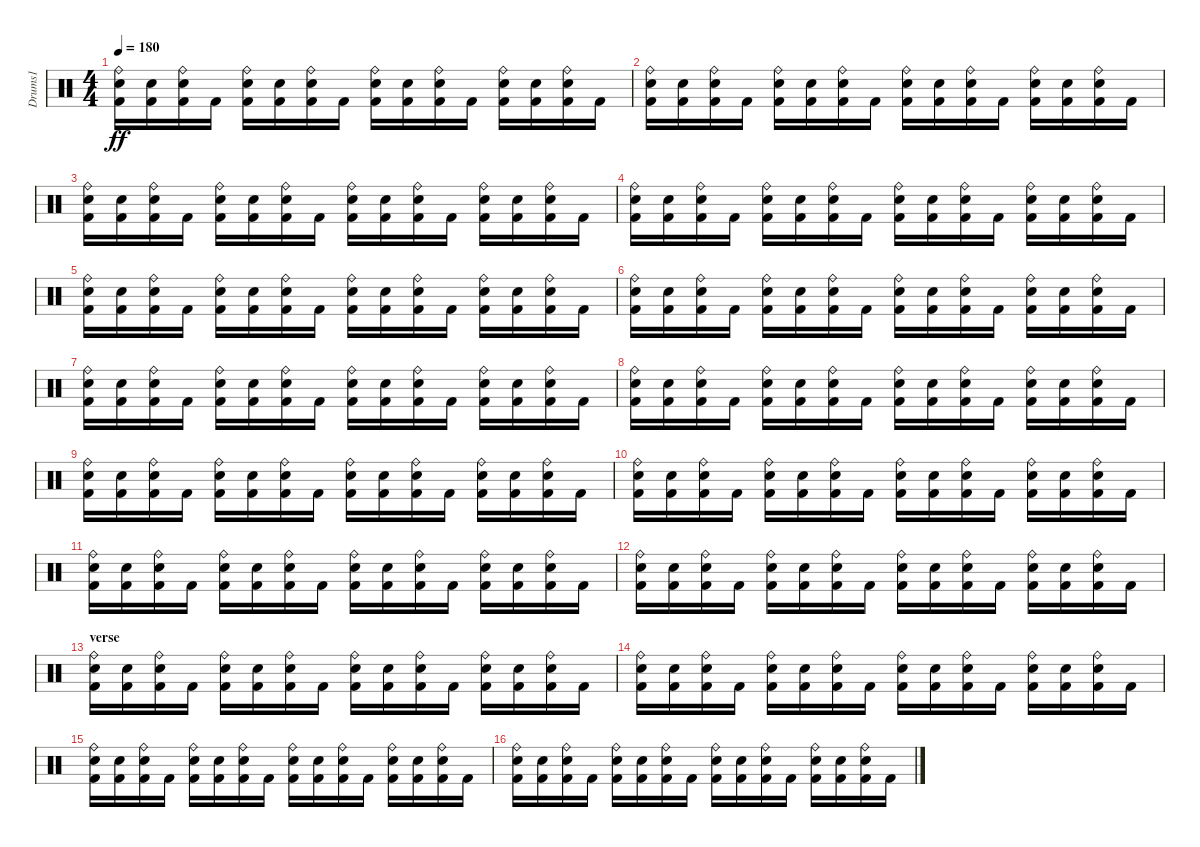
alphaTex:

\track ("Drums1" "Drums1") {instrument percussion}
\staff {score}
\articulation defaults
\ts (4 4)
\tempo 180
\clef neutral
\ks c
("Ride (bell)" "Electric Snare (hit)" "Kick (hit) 2").16{dy ff} ("Electric Snare (hit)" "Kick (hit) 2").16 ("Ride (bell)" "Electric Snare (hit)" "Kick (hit) 2").16 "Kick (hit) 2".16 ("Ride (bell)" "Electric Snare (hit)" "Kick (hit) 2").16 ("Electric Snare (hit)" "Kick (hit) 2").16 ("Ride (bell)" "Electric Snare (hit)" "Kick (hit) 2").16 "Kick (hit) 2".16 ("Ride (bell)" "Electric Snare (hit)" "Kick (hit) 2").16 ("Electric Snare (hit)" "Kick (hit) 2").16 ("Ride (bell)" "Electric Snare (hit)" "Kick (hit) 2").16 "Kick (hit) 2".16 ("Ride (bell)" "Electric Snare (hit)" "Kick (hit) 2").16 ("Electric Snare (hit)" "Kick (hit) 2").16 ("Ride (bell)" "Electric Snare (hit)" "Kick (hit) 2").16 "Kick (hit) 2".16 |
("Ride (bell)" "Electric Snare (hit)" "Kick (hit) 2").16 ("Electric Snare (hit)" "Kick (hit) 2").16 ("Ride (bell)" "Electric Snare (hit)" "Kick (hit) 2").16 "Kick (hit) 2".16 ("Ride (bell)" "Electric Snare (hit)" "Kick (hit) 2").16 ("Electric Snare (hit)" "Kick (hit) 2").16 ("Ride (bell)" "Electric Snare (hit)" "Kick (hit) 2").16 "Kick (hit) 2".16 ("Ride (bell)" "Electric Snare (hit)" "Kick (hit) 2").16 ("Electric Snare (hit)" "Kick (hit) 2").16 ("Ride (bell)" "Electric Snare (hit)" "Kick (hit) 2").16 "Kick (hit) 2".16 ("Ride (bell)" "Electric Snare (hit)" "Kick (hit) 2").16 ("Electric Snare (hit)" "Kick (hit) 2").16 ("Ride (bell)" "Electric Snare (hit)" "Kick (hit) 2").16 "Kick (hit) 2".16 |
("Ride (bell)" "Electric Snare (hit)" "Kick (hit) 2").16 ("Electric Snare (hit)" "Kick (hit) 2").16 ("Ride (bell)" "Electric Snare (hit)" "Kick (hit) 2").16 "Kick (hit) 2".16 ("Ride (bell)" "Electric Snare (hit)" "Kick (hit) 2").16 ("Electric Snare (hit)" "Kick (hit) 2").16 ("Ride (bell)" "Electric Snare (hit)" "Kick (hit) 2").16 "Kick (hit) 2".16 ("Ride (bell)" "Electric Snare (hit)" "Kick (hit) 2").16 ("Electric Snare (hit)" "Kick (hit) 2").16 ("Ride (bell)" "Electric Snare (hit)" "Kick (hit) 2").16 "Kick (hit) 2".16 ("Ride (bell)" "Electric Snare (hit)" "Kick (hit) 2").16 ("Electric Snare (hit)" "Kick (hit) 2").16 ("Ride (bell)" "Electric Snare (hit)" "Kick (hit) 2").16 "Kick (hit) 2".16 |
("Ride (bell)" "Electric Snare (hit)" "Kick (hit) 2").16 ("Electric Snare (hit)" "Kick (hit) 2").16 ("Ride (bell)" "Electric Snare (hit)" "Kick (hit) 2").16 "Kick (hit) 2".16 ("Ride (bell)" "Electric Snare (hit)" "Kick (hit) 2").16 ("Electric Snare (hit)" "Kick (hit) 2").16 ("Ride (bell)" "Electric Snare (hit)" "Kick (hit) 2").16 "Kick (hit) 2".16 ("Ride (bell)" "Electric Snare (hit)" "Kick (hit) 2").16 ("Electric Snare (hit)" "Kick (hit) 2").16 ("Ride (bell)" "Electric Snare (hit)" "Kick (hit) 2").16 "Kick (hit) 2".16 ("Ride (bell)" "Electric Snare (hit)" "Kick (hit) 2").16 ("Electric Snare (hit)" "Kick (hit) 2").16 ("Ride (bell)" "Electric Snare (hit)" "Kick (hit) 2").16 "Kick (hit) 2".16 |
("Ride (bell)" "Electric Snare (hit)" "Kick (hit) 2").16 ("Electric Snare (hit)" "Kick (hit) 2").16 ("Ride (bell)" "Electric Snare (hit)" "Kick (hit) 2").16 "Kick (hit) 2".16 ("Ride (bell)" "Electric Snare (hit)" "Kick (hit) 2").16 ("Electric Snare (hit)" "Kick (hit) 2").16 ("Ride (bell)" "Electric Snare (hit)" "Kick (hit) 2").16 "Kick (hit) 2".16 ("Ride (bell)" "Electric Snare (hit)" "Kick (hit) 2").16 ("Electric Snare (hit)" "Kick (hit) 2").16 ("Ride (bell)" "Electric Snare (hit)" "Kick (hit) 2").16 "Kick (hit) 2".16 ("Ride (bell)" "Electric Snare (hit)" "Kick (hit) 2").16 ("Electric Snare (hit)" "Kick (hit) 2").16 ("Ride (bell)" "Electric Snare (hit)" "Kick (hit) 2").16 "Kick (hit) 2".16 |
("Ride (bell)" "Electric Snare (hit)" "Kick (hit) 2").16 ("Electric Snare (hit)" "Kick (hit) 2").16 ("Ride (bell)" "Electric Snare (hit)" "Kick (hit) 2").16 "Kick (hit) 2".16 ("Ride (bell)" "Electric Snare (hit)" "Kick (hit) 2").16 ("Electric Snare (hit)" "Kick (hit) 2").16 ("Ride (bell)" "Electric Snare (hit)" "Kick (hit) 2").16 "Kick (hit) 2".16 ("Ride (bell)" "Electric Snare (hit)" "Kick (hit) 2").16 ("Electric Snare (hit)" "Kick (hit) 2").16 ("Ride (bell)" "Electric Snare (hit)" "Kick (hit) 2").16 "Kick (hit) 2".16 ("Ride (bell)" "Electric Snare (hit)" "Kick (hit) 2").16 ("Electric Snare (hit)" "Kick (hit) 2").16 ("Ride (bell)" "Electric Snare (hit)" "Kick (hit) 2").16 "Kick (hit) 2".16 |
("Ride (bell)" "Electric Snare (hit)" "Kick (hit) 2").16 ("Electric Snare (hit)" "Kick (hit) 2").16 ("Ride (bell)" "Electric Snare (hit)" "Kick (hit) 2").16 "Kick (hit) 2".16 ("Ride (bell)" "Electric Snare (hit)" "Kick (hit) 2").16 ("Electric Snare (hit)" "Kick (hit) 2").16 ("Ride (bell)" "Electric Snare (hit)" "Kick (hit) 2").16 "Kick (hit) 2".16 ("Ride (bell)" "Electric Snare (hit)" "Kick (hit) 2").16 ("Electric Snare (hit)" "Kick (hit) 2").16 ("Ride (bell)" "Electric Snare (hit)" "Kick (hit) 2").16 "Kick (hit) 2".16 ("Ride (bell)" "Electric Snare (hit)" "Kick (hit) 2").16 ("Electric Snare (hit)" "Kick (hit) 2").16 ("Ride (bell)" "Electric Snare (hit)" "Kick (hit) 2").16 "Kick (hit) 2".16 |
("Ride (bell)" "Electric Snare (hit)" "Kick (hit) 2").16 ("Electric Snare (hit)" "Kick (hit) 2").16 ("Ride (bell)" "Electric Snare (hit)" "Kick (hit) 2").16 "Kick (hit) 2".16 ("Ride (bell)" "Electric Snare (hit)" "Kick (hit) 2").16 ("Electric Snare (hit)" "Kick (hit) 2").16 ("Ride (bell)" "Electric Snare (hit)" "Kick (hit) 2").16 "Kick (hit) 2".16 ("Ride (bell)" "Electric Snare (hit)" "Kick (hit) 2").16 ("Electric Snare (hit)" "Kick (hit) 2").16 ("Ride (bell)" "Electric Snare (hit)" "Kick (hit) 2").16 "Kick (hit) 2".16 ("Ride (bell)" "Electric Snare (hit)" "Kick (hit) 2").16 ("Electric Snare (hit)" "Kick (hit) 2").16 ("Ride (bell)" "Electric Snare (hit)" "Kick (hit) 2").16 "Kick (hit) 2".16 |
("Ride (bell)" "Electric Snare (hit)" "Kick (hit) 2").16 ("Electric Snare (hit)" "Kick (hit) 2").16 ("Ride (bell)" "Electric Snare (hit)" "Kick (hit) 2").16 "Kick (hit) 2".16 ("Ride (bell)" "Electric Snare (hit)" "Kick (hit) 2").16 ("Electric Snare (hit)" "Kick (hit) 2").16 ("Ride (bell)" "Electric Snare (hit)" "Kick (hit) 2").16 "Kick (hit) 2".16 ("Ride (bell)" "Electric Snare (hit)" "Kick (hit) 2").16 ("Electric Snare (hit)" "Kick (hit) 2").16 ("Ride (bell)" "Electric Snare (hit)" "Kick (hit) 2").16 "Kick (hit) 2".16 ("Ride (bell)" "Electric Snare (hit)" "Kick (hit) 2").16 ("Electric Snare (hit)" "Kick (hit) 2").16 ("Ride (bell)" "Electric Snare (hit)" "Kick (hit) 2").16 "Kick (hit) 2".16 |
("Ride (bell)" "Electric Snare (hit)" "Kick (hit) 2").16 ("Electric Snare (hit)" "Kick (hit) 2").16 ("Ride (bell)" "Electric Snare (hit)" "Kick (hit) 2").16 "Kick (hit) 2".16 ("Ride (bell)" "Electric Snare (hit)" "Kick (hit) 2").16 ("Electric Snare (hit)" "Kick (hit) 2").16 ("Ride (bell)" "Electric Snare (hit)" "Kick (hit) 2").16 "Kick (hit) 2".16 ("Ride (bell)" "Electric Snare (hit)" "Kick (hit) 2").16 ("Electric Snare (hit)" "Kick (hit) 2").16 ("Ride (bell)" "Electric Snare (hit)" "Kick (hit) 2").16 "Kick (hit) 2".16 ("Ride (bell)" "Electric Snare (hit)" "Kick (hit) 2").16 ("Electric Snare (hit)" "Kick (hit) 2").16 ("Ride (bell)" "Electric Snare (hit)" "Kick (hit) 2").16 "Kick (hit) 2".16 |
("Ride (bell)" "Electric Snare (hit)" "Kick (hit) 2").16 ("Electric Snare (hit)" "Kick (hit) 2").16 ("Ride (bell)" "Electric Snare (hit)" "Kick (hit) 2").16 "Kick (hit) 2".16 ("Ride (bell)" "Electric Snare (hit)" "Kick (hit) 2").16 ("Electric Snare (hit)" "Kick (hit) 2").16 ("Ride (bell)" "Electric Snare (hit)" "Kick (hit) 2").16 "Kick (hit) 2".16 ("Ride (bell)" "Electric Snare (hit)" "Kick (hit) 2").16 ("Electric Snare (hit)" "Kick (hit) 2").16 ("Ride (bell)" "Electric Snare (hit)" "Kick (hit) 2").16 "Kick (hit) 2".16 ("Ride (bell)" "Electric Snare (hit)" "Kick (hit) 2").16 ("Electric Snare (hit)" "Kick (hit) 2").16 ("Ride (bell)" "Electric Snare (hit)" "Kick (hit) 2").16 "Kick (hit) 2".16 |
("Ride (bell)" "Electric Snare (hit)" "Kick (hit) 2").16 ("Electric Snare (hit)" "Kick (hit) 2").16 ("Ride (bell)" "Electric Snare (hit)" "Kick (hit) 2").16 "Kick (hit) 2".16 ("Ride (bell)" "Electric Snare (hit)" "Kick (hit) 2").16 ("Electric Snare (hit)" "Kick (hit) 2").16 ("Ride (bell)" "Electric Snare (hit)" "Kick (hit) 2").16 "Kick (hit) 2".16 ("Ride (bell)" "Electric Snare (hit)" "Kick (hit) 2").16 ("Electric Snare (hit)" "Kick (hit) 2").16 ("Ride (bell)" "Electric Snare (hit)" "Kick (hit) 2").16 "Kick (hit) 2".16 ("Ride (bell)" "Electric Snare (hit)" "Kick (hit) 2").16 ("Electric Snare (hit)" "Kick (hit) 2").16 ("Ride (bell)" "Electric Snare (hit)" "Kick (hit) 2").16 "Kick (hit) 2".16 |
\section ("" "verse")
("Ride (bell)" "Electric Snare (hit)" "Kick (hit) 2").16 ("Electric Snare (hit)" "Kick (hit) 2").16 ("Ride (bell)" "Electric Snare (hit)" "Kick (hit) 2").16 "Kick (hit) 2".16 ("Ride (bell)" "Electric Snare (hit)" "Kick (hit) 2").16 ("Electric Snare (hit)" "Kick (hit) 2").16 ("Ride (bell)" "Electric Snare (hit)" "Kick (hit) 2").16 "Kick (hit) 2".16 ("Ride (bell)" "Electric Snare (hit)" "Kick (hit) 2").16 ("Electric Snare (hit)" "Kick (hit) 2").16 ("Ride (bell)" "Electric Snare (hit)" "Kick (hit) 2").16 "Kick (hit) 2".16 ("Ride (bell)" "Electric Snare (hit)" "Kick (hit) 2").16 ("Electric Snare (hit)" "Kick (hit) 2").16 ("Ride (bell)" "Electric Snare (hit)" "Kick (hit) 2").16 "Kick (hit) 2".16 |
("Ride (bell)" "Electric Snare (hit)" "Kick (hit) 2").16 ("Electric Snare (hit)" "Kick (hit) 2").16 ("Ride (bell)" "Electric Snare (hit)" "Kick (hit) 2").16 "Kick (hit) 2".16 ("Ride (bell)" "Electric Snare (hit)" "Kick (hit) 2").16 ("Electric Snare (hit)" "Kick (hit) 2").16 ("Ride (bell)" "Electric Snare (hit)" "Kick (hit) 2").16 "Kick (hit) 2".16 ("Ride (bell)" "Electric Snare (hit)" "Kick (hit) 2").16 ("Electric Snare (hit)" "Kick (hit) 2").16 ("Ride (bell)" "Electric Snare (hit)" "Kick (hit) 2").16 "Kick (hit) 2".16 ("Ride (bell)" "Electric Snare (hit)" "Kick (hit) 2").16 ("Electric Snare (hit)" "Kick (hit) 2").16 ("Ride (bell)" "Electric Snare (hit)" "Kick (hit) 2").16 "Kick (hit) 2".16 |
("Ride (bell)" "Electric Snare (hit)" "Kick (hit) 2").16 ("Electric Snare (hit)" "Kick (hit) 2").16 ("Ride (bell)" "Electric Snare (hit)" "Kick (hit) 2").16 "Kick (hit) 2".16 ("Ride (bell)" "Electric Snare (hit)" "Kick (hit) 2").16 ("Electric Snare (hit)" "Kick (hit) 2").16 ("Ride (bell)" "Electric Snare (hit)" "Kick (hit) 2").16 "Kick (hit) 2".16 ("Ride (bell)" "Electric Snare (hit)" "Kick (hit) 2").16 ("Electric Snare (hit)" "Kick (hit) 2").16 ("Ride (bell)" "Electric Snare (hit)" "Kick (hit) 2").16 "Kick (hit) 2".16 ("Ride (bell)" "Electric Snare (hit)" "Kick (hit) 2").16 ("Electric Snare (hit)" "Kick (hit) 2").16 ("Ride (bell)" "Electric Snare (hit)" "Kick (hit) 2").16 "Kick (hit) 2".16 |
("Ride (bell)" "Electric Snare (hit)" "Kick (hit) 2").16 ("Electric Snare (hit)" "Kick (hit) 2").16 ("Ride (bell)" "Electric Snare (hit)" "Kick (hit) 2").16 "Kick (hit) 2".16 ("Ride (bell)" "Electric Snare (hit)" "Kick (hit) 2").16 ("Electric Snare (hit)" "Kick (hit) 2").16 ("Ride (bell)" "Electric Snare (hit)" "Kick (hit) 2").16 "Kick (hit) 2".16 ("Ride (bell)" "Electric Snare (hit)" "Kick (hit) 2").16 ("Electric Snare (hit)" "Kick (hit) 2").16 ("Ride (bell)" "Electric Snare (hit)" "Kick (hit) 2").16 "Kick (hit) 2".16 ("Ride (bell)" "Electric Snare (hit)" "Kick (hit) 2").16 ("Electric Snare (hit)" "Kick (hit) 2").16 ("Ride (bell)" "Electric Snare (hit)" "Kick (hit) 2").16 "Kick (hit) 2".16
